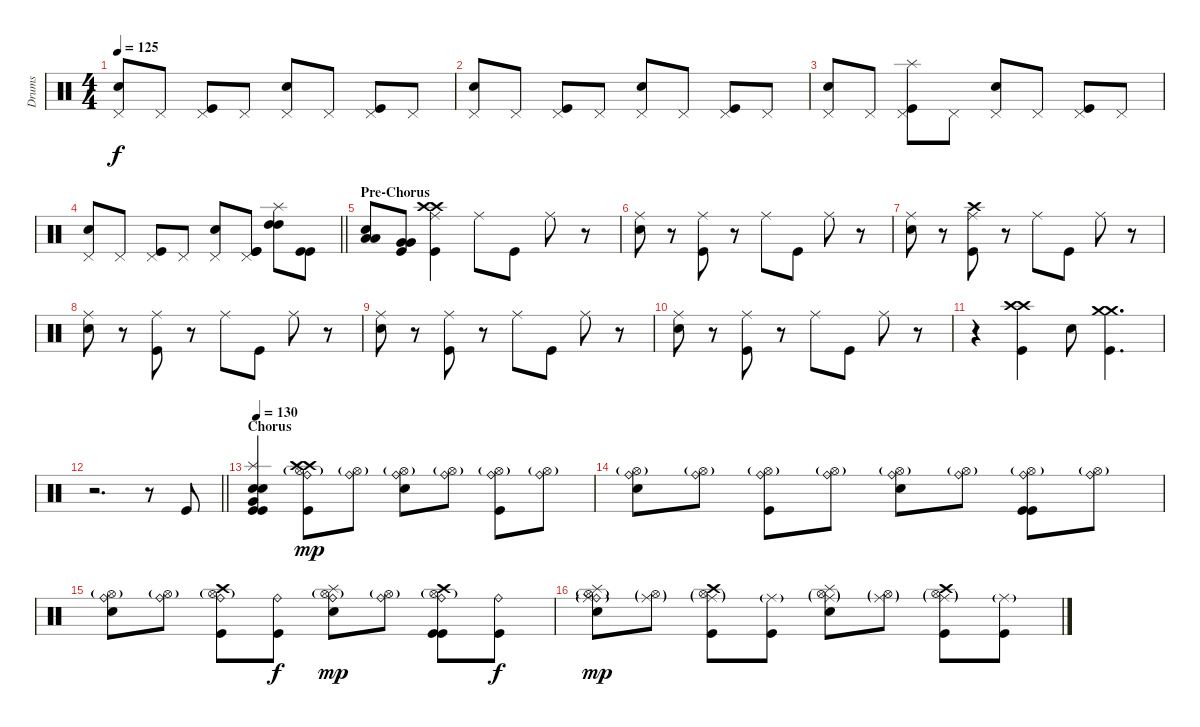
\track ("Drums" "Drums") {instrument percussion}
\staff {score}
\articulation defaults
\ts (4 4)
\tempo 125
\clef neutral
\ks c
("Pedal Hi-Hat (hit)" "Snare (hit) 2").8{dy f} "Pedal Hi-Hat (hit)".8 ("Pedal Hi-Hat (hit)" "Kick (hit)").8 "Pedal Hi-Hat (hit)".8 ("Pedal Hi-Hat (hit)" "Snare (hit) 2").8 "Pedal Hi-Hat (hit)".8 ("Pedal Hi-Hat (hit)" "Kick (hit)").8 "Pedal Hi-Hat (hit)".8 |
("Pedal Hi-Hat (hit)" "Snare (hit) 2").8 "Pedal Hi-Hat (hit)".8 ("Pedal Hi-Hat (hit)" "Kick (hit)").8 "Pedal Hi-Hat (hit)".8 ("Pedal Hi-Hat (hit)" "Snare (hit) 2").8 "Pedal Hi-Hat (hit)".8 ("Pedal Hi-Hat (hit)" "Kick (hit)").8 "Pedal Hi-Hat (hit)".8 |
("Pedal Hi-Hat (hit)" "Snare (hit) 2").8 "Pedal Hi-Hat (hit)".8 ("Splash (hit)" "Pedal Hi-Hat (hit)" "Kick (hit)").8 "Pedal Hi-Hat (hit)".8 ("Pedal Hi-Hat (hit)" "Snare (hit) 2").8 "Pedal Hi-Hat (hit)".8 ("Pedal Hi-Hat (hit)" "Kick (hit)").8 "Pedal Hi-Hat (hit)".8 |
\barLineRight lightlight
("Pedal Hi-Hat (hit)" "Snare (hit) 2").8 "Pedal Hi-Hat (hit)".8 ("Pedal Hi-Hat (hit)" "Kick (hit)").8 "Pedal Hi-Hat (hit)".8 ("Pedal Hi-Hat (hit)" "Snare (hit) 2").8 ("Pedal Hi-Hat (hit)" "Kick (hit)" "Kick (hit)").8 ("High Tom (hit)" "High Tom (hit)" "Splash (hit)").8 ("Kick (hit)" "Kick (hit)").8 |
\section ("" "Pre-Chorus")
("Low Tom (hit)" "Low Tom (hit)" "Snare (hit) 2").8 ("Very Low Tom (hit)" "Very Low Tom (hit)" "Kick (hit)").8 ("Crash high (hit)" "Crash high (hit)" "Ride (middle)" "Kick (hit)").4 "Ride (middle)".8 "Kick (hit)".8 "Ride (middle)".8 r.8 |
("Ride (middle)" "Snare (hit) 2").8 r.8 ("Ride (middle)" "Kick (hit)").8 r.8 "Ride (middle)".8 "Kick (hit)".8 "Ride (middle)".8 r.8 |
("Ride (middle)" "Snare (hit) 2").8 r.8 ("Crash high (hit)" "Ride (middle)" "Kick (hit)").8 r.8 "Ride (middle)".8 "Kick (hit)".8 "Ride (middle)".8 r.8 |
("Ride (middle)" "Snare (hit) 2").8 r.8 ("Ride (middle)" "Kick (hit)").8 r.8 "Ride (middle)".8 "Kick (hit)".8 "Ride (middle)".8 r.8 |
("Ride (middle)" "Snare (hit) 2").8 r.8 ("Ride (middle)" "Kick (hit)").8 r.8 "Ride (middle)".8 "Kick (hit)".8 "Ride (middle)".8 r.8 |
("Ride (middle)" "Snare (hit) 2").8 r.8 ("Ride (middle)" "Kick (hit)").8 r.8 "Ride (middle)".8 "Kick (hit)".8 "Ride (middle)".8 r.8 |
r.4 ("Crash high (hit)" "Crash high (hit)" "Kick (hit)").4 "Snare (hit) 2".8 ("Crash medium (hit)" "Crash medium (hit)" "Kick (hit)").4{d} |
\barLineRight lightlight
r.2{d} r.8 "Kick (hit)".8 |
\section ("" "Chorus")
\tempo 130
("Splash (hit)" "Snare (hit) 2" "Very Low Tom (hit)" "Snare (hit) 2" "Kick (hit)" "Kick (hit)").4 ("Crash high (hit)" "Crash high (hit)" "Ride (bell)" "Hi-Hat (open)"{g} "Kick (hit)").8{dy mp} ("Ride (bell)" "Hi-Hat (open)"{g}).8 ("Ride (bell)" "Hi-Hat (open)"{g} "Snare (hit) 2").8 ("Ride (bell)" "Hi-Hat (open)"{g}).8 ("Ride (bell)" "Hi-Hat (open)"{g} "Kick (hit)").8 ("Ride (bell)" "Hi-Hat (open)"{g}).8 |
("Ride (bell)" "Hi-Hat (open)"{g} "Snare (hit) 2").8 ("Ride (bell)" "Hi-Hat (open)"{g}).8 ("Ride (bell)" "Hi-Hat (open)"{g} "Kick (hit)").8 ("Ride (bell)" "Hi-Hat (open)"{g}).8 ("Ride (bell)" "Hi-Hat (open)"{g} "Snare (hit) 2").8 ("Ride (bell)" "Hi-Hat (open)"{g}).8 ("Ride (bell)" "Hi-Hat (open)"{g} "Kick (hit)" "Kick (hit)").8 ("Ride (bell)" "Hi-Hat (open)"{g}).8 |
("Ride (bell)" "Hi-Hat (open)"{g} "Snare (hit) 2").8 ("Ride (bell)" "Hi-Hat (open)"{g}).8 ("Crash high (hit)" "Ride (bell)" "Hi-Hat (open)"{g} "Kick (hit)").8 ("Ride (bell)" "Kick (hit)").8{dy f} ("Splash (hit)" "Ride (bell)" "Hi-Hat (open)"{g} "Snare (hit) 2").8{dy mp} ("Ride (bell)" "Hi-Hat (open)"{g}).8 ("Crash high (hit)" "Ride (bell)" "Hi-Hat (open)"{g} "Kick (hit)" "Kick (hit)").8 ("Ride (bell)" "Kick (hit)").8{dy f} |
("Ride (bell)" "Splash (hit)" "Hi-Hat (open)"{g} "Snare (hit) 2" "Ride (middle)"{g}).8{dy mp} ("Hi-Hat (open)"{g} "Ride (middle)"{g}).8 ("Crash high (hit)" "Hi-Hat (open)"{g} "Kick (hit)" "Ride (middle)"{g}).8 ("Kick (hit)" "Ride (middle)"{g}).8 ("Splash (hit)" "Hi-Hat (open)"{g} "Snare (hit) 2" "Ride (middle)"{g}).8 ("Hi-Hat (open)"{g} "Ride (middle)"{g}).8 ("Crash high (hit)" "Hi-Hat (open)"{g} "Kick (hit)" "Ride (middle)"{g}).8 ("Kick (hit)" "Ride (middle)"{g}).8
